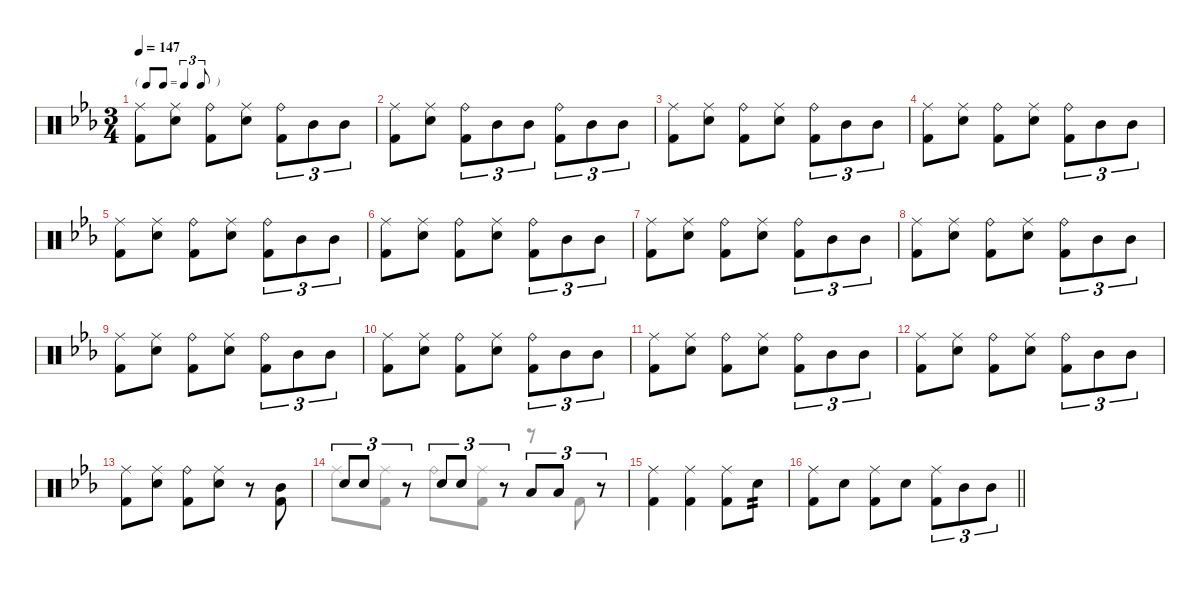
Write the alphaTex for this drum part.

\defaultSystemsLayout 4
\hideDynamics
\bracketExtendMode nobrackets
\singleTrackTrackNamePolicy hidden
\multiTrackTrackNamePolicy hidden
\firstSystemTrackNameMode fullname
\firstSystemTrackNameOrientation horizontal
\otherSystemsTrackNameOrientation horizontal
\track ("Percussion" "drm.") {defaultSystemsLayout 8 instrument percussion}
\staff {score}
\articulation defaults
\voice
\ts (3 4)
\tf triplet8th
\tempo 147
\clef neutral
\ks eb
("Ride (middle)"{acc forcenatural} "Kick (hit) 2"{acc forcenatural}).8{dy f beam Down} ("Ride (middle)"{acc forcenatural} "Snare (hit) 2"{acc forcenatural}).8{beam Down} ("Ride (bell)"{acc forcenatural} "Kick (hit) 2"{acc forcenatural}).8{beam Down} ("Ride (middle)"{acc forcenatural} "Snare (hit) 2"{acc forcenatural}).8{beam Down} ("Ride (bell)"{acc forcenatural} "Kick (hit) 2"{acc forcenatural}).8{tu (3 2) beam Down} "Mid Tom (hit)"{acc forcenatural}.8{tu (3 2) beam Down} "Mid Tom (hit)"{acc forcenatural}.8{tu (3 2) beam Down} |
("Ride (middle)"{acc forcenatural} "Kick (hit) 2"{acc forcenatural}).8{beam Down} ("Ride (middle)"{acc forcenatural} "Snare (hit) 2"{acc forcenatural}).8{beam Down} ("Ride (bell)"{acc forcenatural} "Kick (hit) 2"{acc forcenatural}).8{tu (3 2) beam Down} "Mid Tom (hit)"{acc forcenatural}.8{tu (3 2) beam Down} "Mid Tom (hit)"{acc forcenatural}.8{tu (3 2) dy mp beam Down} ("Ride (bell)"{acc forcenatural} "Kick (hit) 2"{acc forcenatural}).8{tu (3 2) dy f beam Down} "Mid Tom (hit)"{acc forcenatural}.8{tu (3 2) beam Down} "Mid Tom (hit)"{acc forcenatural}.8{tu (3 2) beam Down} |
("Ride (middle)"{acc forcenatural} "Kick (hit) 2"{acc forcenatural}).8{beam Down} ("Ride (middle)"{acc forcenatural} "Snare (hit) 2"{acc forcenatural}).8{beam Down} ("Ride (bell)"{acc forcenatural} "Kick (hit) 2"{acc forcenatural}).8{beam Down} ("Ride (middle)"{acc forcenatural} "Snare (hit) 2"{acc forcenatural}).8{beam Down} ("Ride (bell)"{acc forcenatural} "Kick (hit) 2"{acc forcenatural}).8{tu (3 2) beam Down} "Mid Tom (hit)"{acc forcenatural}.8{tu (3 2) beam Down} "Mid Tom (hit)"{acc forcenatural}.8{tu (3 2) beam Down} |
("Ride (middle)"{acc forcenatural} "Kick (hit) 2"{acc forcenatural}).8{beam Down} ("Ride (middle)"{acc forcenatural} "Snare (hit) 2"{acc forcenatural}).8{beam Down} ("Ride (bell)"{acc forcenatural} "Kick (hit) 2"{acc forcenatural}).8{beam Down} ("Ride (middle)"{acc forcenatural} "Snare (hit) 2"{acc forcenatural}).8{beam Down} ("Ride (bell)"{acc forcenatural} "Kick (hit) 2"{acc forcenatural}).8{tu (3 2) beam Down} "Mid Tom (hit)"{acc forcenatural}.8{tu (3 2) beam Down} "Mid Tom (hit)"{acc forcenatural}.8{tu (3 2) beam Down} |
("Ride (middle)"{acc forcenatural} "Kick (hit) 2"{acc forcenatural}).8{beam Down} ("Ride (middle)"{acc forcenatural} "Snare (hit) 2"{acc forcenatural}).8{beam Down} ("Ride (bell)"{acc forcenatural} "Kick (hit) 2"{acc forcenatural}).8{beam Down} ("Ride (middle)"{acc forcenatural} "Snare (hit) 2"{acc forcenatural}).8{beam Down} ("Ride (bell)"{acc forcenatural} "Kick (hit) 2"{acc forcenatural}).8{tu (3 2) beam Down} "Mid Tom (hit)"{acc forcenatural}.8{tu (3 2) beam Down} "Mid Tom (hit)"{acc forcenatural}.8{tu (3 2) beam Down} |
("Ride (middle)"{acc forcenatural} "Kick (hit) 2"{acc forcenatural}).8{beam Down} ("Ride (middle)"{acc forcenatural} "Snare (hit) 2"{acc forcenatural}).8{beam Down} ("Ride (bell)"{acc forcenatural} "Kick (hit) 2"{acc forcenatural}).8{beam Down} ("Ride (middle)"{acc forcenatural} "Snare (hit) 2"{acc forcenatural}).8{beam Down} ("Ride (bell)"{acc forcenatural} "Kick (hit) 2"{acc forcenatural}).8{tu (3 2) beam Down} "Mid Tom (hit)"{acc forcenatural}.8{tu (3 2) beam Down} "Mid Tom (hit)"{acc forcenatural}.8{tu (3 2) beam Down} |
("Ride (middle)"{acc forcenatural} "Kick (hit) 2"{acc forcenatural}).8{beam Down} ("Ride (middle)"{acc forcenatural} "Snare (hit) 2"{acc forcenatural}).8{beam Down} ("Ride (bell)"{acc forcenatural} "Kick (hit) 2"{acc forcenatural}).8{beam Down} ("Ride (middle)"{acc forcenatural} "Snare (hit) 2"{acc forcenatural}).8{beam Down} ("Ride (bell)"{acc forcenatural} "Kick (hit) 2"{acc forcenatural}).8{tu (3 2) beam Down} "Mid Tom (hit)"{acc forcenatural}.8{tu (3 2) beam Down} "Mid Tom (hit)"{acc forcenatural}.8{tu (3 2) beam Down} |
("Ride (middle)"{acc forcenatural} "Kick (hit) 2"{acc forcenatural}).8{beam Down} ("Ride (middle)"{acc forcenatural} "Snare (hit) 2"{acc forcenatural}).8{beam Down} ("Ride (bell)"{acc forcenatural} "Kick (hit) 2"{acc forcenatural}).8{beam Down} ("Ride (middle)"{acc forcenatural} "Snare (hit) 2"{acc forcenatural}).8{beam Down} ("Ride (bell)"{acc forcenatural} "Kick (hit) 2"{acc forcenatural}).8{tu (3 2) beam Down} "Mid Tom (hit)"{acc forcenatural}.8{tu (3 2) beam Down} "Mid Tom (hit)"{acc forcenatural}.8{tu (3 2) beam Down} |
("Ride (middle)"{acc forcenatural} "Kick (hit) 2"{acc forcenatural}).8{beam Down} ("Ride (middle)"{acc forcenatural} "Snare (hit) 2"{acc forcenatural}).8{beam Down} ("Ride (bell)"{acc forcenatural} "Kick (hit) 2"{acc forcenatural}).8{beam Down} ("Ride (middle)"{acc forcenatural} "Snare (hit) 2"{acc forcenatural}).8{beam Down} ("Ride (bell)"{acc forcenatural} "Kick (hit) 2"{acc forcenatural}).8{tu (3 2) beam Down} "Mid Tom (hit)"{acc forcenatural}.8{tu (3 2) beam Down} "Mid Tom (hit)"{acc forcenatural}.8{tu (3 2) beam Down} |
("Ride (middle)"{acc forcenatural} "Kick (hit) 2"{acc forcenatural}).8{beam Down} ("Ride (middle)"{acc forcenatural} "Snare (hit) 2"{acc forcenatural}).8{beam Down} ("Ride (bell)"{acc forcenatural} "Kick (hit) 2"{acc forcenatural}).8{beam Down} ("Ride (middle)"{acc forcenatural} "Snare (hit) 2"{acc forcenatural}).8{beam Down} ("Ride (bell)"{acc forcenatural} "Kick (hit) 2"{acc forcenatural}).8{tu (3 2) beam Down} "Mid Tom (hit)"{acc forcenatural}.8{tu (3 2) beam Down} "Mid Tom (hit)"{acc forcenatural}.8{tu (3 2) beam Down} |
("Ride (middle)"{acc forcenatural} "Kick (hit) 2"{acc forcenatural}).8{beam Down} ("Ride (middle)"{acc forcenatural} "Snare (hit) 2"{acc forcenatural}).8{beam Down} ("Ride (bell)"{acc forcenatural} "Kick (hit) 2"{acc forcenatural}).8{beam Down} ("Ride (middle)"{acc forcenatural} "Snare (hit) 2"{acc forcenatural}).8{beam Down} ("Ride (bell)"{acc forcenatural} "Kick (hit) 2"{acc forcenatural}).8{tu (3 2) beam Down} "Mid Tom (hit)"{acc forcenatural}.8{tu (3 2) beam Down} "Mid Tom (hit)"{acc forcenatural}.8{tu (3 2) beam Down} |
("Ride (middle)"{acc forcenatural} "Kick (hit) 2"{acc forcenatural}).8{beam Down} ("Ride (middle)"{acc forcenatural} "Snare (hit) 2"{acc forcenatural}).8{beam Down} ("Ride (bell)"{acc forcenatural} "Kick (hit) 2"{acc forcenatural}).8{beam Down} ("Ride (middle)"{acc forcenatural} "Snare (hit) 2"{acc forcenatural}).8{beam Down} ("Ride (bell)"{acc forcenatural} "Kick (hit) 2"{acc forcenatural}).8{tu (3 2) beam Down} "Mid Tom (hit)"{acc forcenatural}.8{tu (3 2) beam Down} "Mid Tom (hit)"{acc forcenatural}.8{tu (3 2) beam Down} |
("Ride (middle)"{acc forcenatural} "Kick (hit) 2"{acc forcenatural}).8{beam Down} ("Ride (middle)"{acc forcenatural} "Snare (hit) 2"{acc forcenatural}).8{beam Down} ("Ride (bell)"{acc forcenatural} "Kick (hit) 2"{acc forcenatural}).8{beam Down} ("Ride (middle)"{acc forcenatural} "Snare (hit) 2"{acc forcenatural}).8{beam Down} r.8{beam Down} ("Mid Tom (hit)"{acc forcenatural} "Kick (hit) 2"{acc forcenatural}).8{beam Up} |
"Snare (hit) 2"{acc forcenatural}.8{tu (3 2) beam Up} "Snare (hit) 2"{acc forcenatural}.8{tu (3 2) beam Up} r.8{tu (3 2) beam Up} "Snare (hit) 2"{acc forcenatural}.8{tu (3 2) beam Up} "Snare (hit) 2"{acc forcenatural}.8{tu (3 2) beam Up} r.8{tu (3 2) beam Up} "Low Floor Tom (hit)"{acc forcenatural}.8{tu (3 2) beam Up} "Low Floor Tom (hit)"{acc forcenatural}.8{tu (3 2) beam Up} r.8{tu (3 2) beam Up} |
("Ride (middle)"{acc forcenatural} "Kick (hit) 2"{acc forcenatural}).4{beam Down} ("Ride (middle)"{acc forcenatural} "Kick (hit) 2"{acc forcenatural}).4{beam Down} ("Ride (middle)"{acc forcenatural} "Kick (hit) 2"{acc forcenatural}).8{beam Down} "Snare (hit) 2"{acc forcenatural}.8{tp 2 beam Down} |
\barLineRight lightlight
("Ride (middle)"{acc forcenatural} "Kick (hit) 2"{acc forcenatural}).8{beam Down} "Snare (hit) 2"{acc forcenatural}.8{beam Down} ("Ride (middle)"{acc forcenatural} "Kick (hit) 2"{acc forcenatural}).8{beam Down} "Snare (hit) 2"{acc forcenatural}.8{beam Down} ("Ride (middle)"{acc forcenatural} "Kick (hit) 2"{acc forcenatural}).8{tu (3 2) beam Down} "Mid Tom (hit)"{acc forcenatural}.8{tu (3 2) beam Down} "Mid Tom (hit)"{acc forcenatural}.8{tu (3 2) beam Down}
\voice
\clef neutral
\ottava regular
\simile none
\ks eb
|
|
|
|
|
|
|
|
|
|
|
|
|
"Ride (middle)"{acc forcenatural}.8{beam Down} ("Kick (hit) 2"{acc forcenatural} "Ride (middle)"{acc forcenatural}).8{beam Down} "Ride (bell)"{acc forcenatural}.8{beam Down} ("Kick (hit) 2"{acc forcenatural} "Ride (middle)"{acc forcenatural}).8{beam Down} r.8{beam Down} "Kick (hit) 2"{acc forcenatural}.8{beam Down} |
|
\barLineRight lightlight
